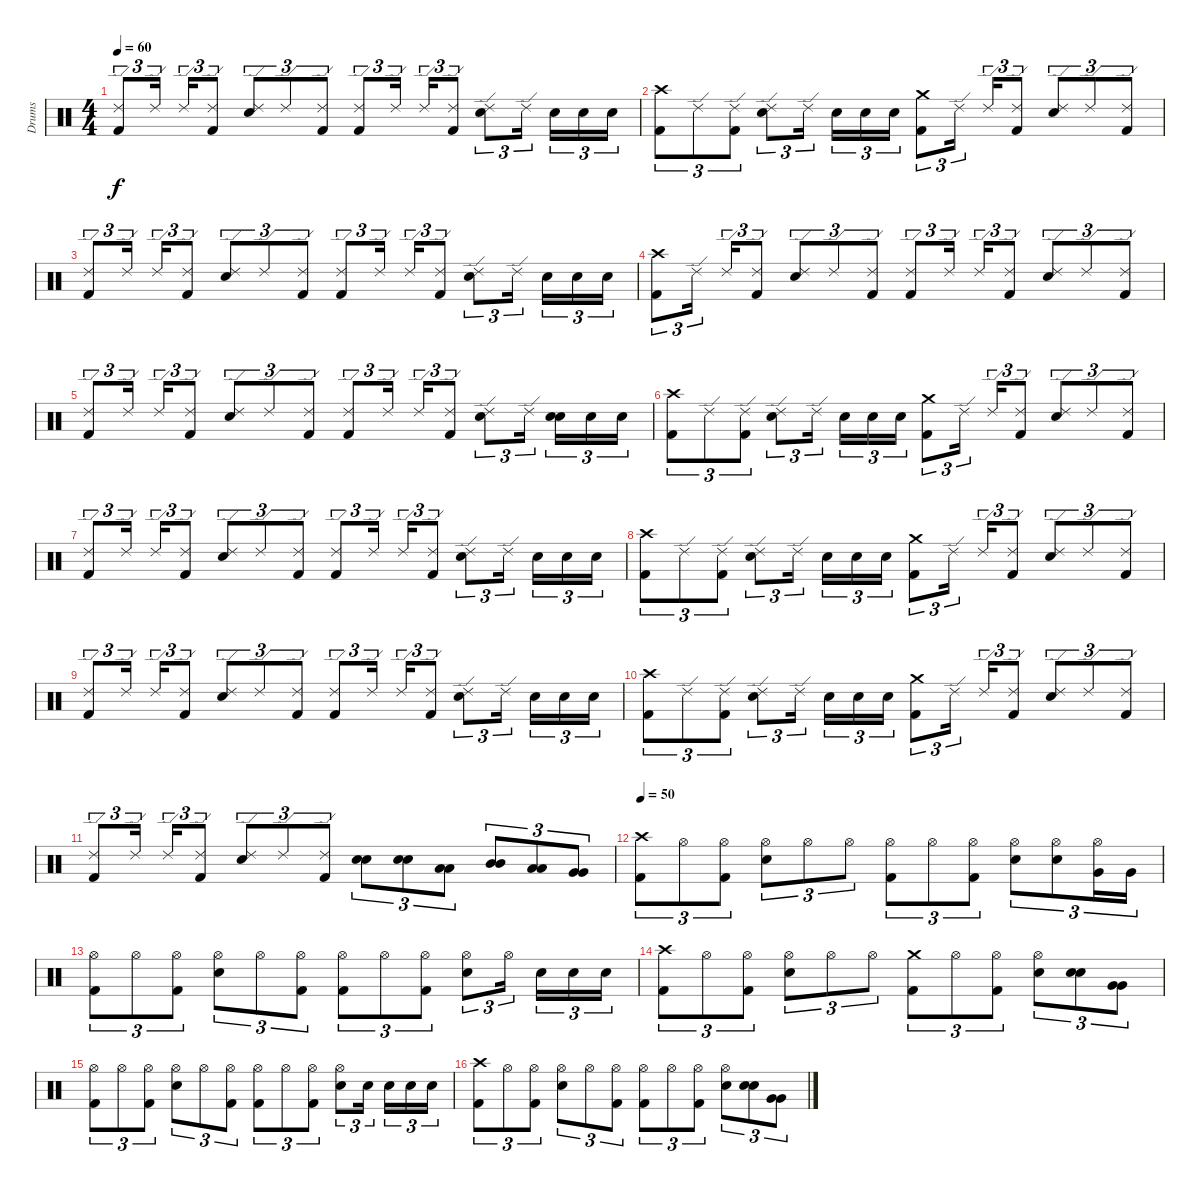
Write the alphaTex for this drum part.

\track ("Drums" "Drums") {instrument percussion}
\staff {score}
\articulation defaults
\ts (4 4)
\tempo 60
\clef neutral
\ks c
("Ride (edge) 2" "Kick (hit) 2").8{tu (3 2) dy f} "Ride (edge) 2".16{tu (3 2)} "Ride (edge) 2".16{tu (3 2)} ("Ride (edge) 2" "Kick (hit) 2").8{tu (3 2)} ("Ride (edge) 2" "Electric Snare (hit)").8{tu (3 2)} "Ride (edge) 2".8{tu (3 2)} ("Ride (edge) 2" "Kick (hit) 2").8{tu (3 2)} ("Ride (edge) 2" "Kick (hit) 2").8{tu (3 2)} "Ride (edge) 2".16{tu (3 2)} "Ride (edge) 2".16{tu (3 2)} ("Ride (edge) 2" "Kick (hit) 2").8{tu (3 2)} ("Ride (edge) 2" "Electric Snare (hit)").8{tu (3 2)} "Ride (edge) 2".16{tu (3 2)} "Electric Snare (hit)".16{tu (3 2)} "Electric Snare (hit)".16{tu (3 2)} "Electric Snare (hit)".16{tu (3 2)} |
("Crash high (hit)" "Kick (hit) 2").8{tu (3 2)} "Ride (edge) 2".8{tu (3 2)} ("Ride (edge) 2" "Kick (hit) 2").8{tu (3 2)} ("Ride (edge) 2" "Electric Snare (hit)").8{tu (3 2)} "Ride (edge) 2".16{tu (3 2)} "Electric Snare (hit)".16{tu (3 2)} "Electric Snare (hit)".16{tu (3 2)} "Electric Snare (hit)".16{tu (3 2)} ("Crash medium (hit)" "Kick (hit) 2").8{tu (3 2)} "Ride (edge) 2".16{tu (3 2)} "Ride (edge) 2".16{tu (3 2)} ("Ride (edge) 2" "Kick (hit) 2").8{tu (3 2)} ("Ride (edge) 2" "Electric Snare (hit)").8{tu (3 2)} "Ride (edge) 2".8{tu (3 2)} ("Ride (edge) 2" "Kick (hit) 2").8{tu (3 2)} |
("Ride (edge) 2" "Kick (hit) 2").8{tu (3 2)} "Ride (edge) 2".16{tu (3 2)} "Ride (edge) 2".16{tu (3 2)} ("Ride (edge) 2" "Kick (hit) 2").8{tu (3 2)} ("Ride (edge) 2" "Electric Snare (hit)").8{tu (3 2)} "Ride (edge) 2".8{tu (3 2)} ("Ride (edge) 2" "Kick (hit) 2").8{tu (3 2)} ("Ride (edge) 2" "Kick (hit) 2").8{tu (3 2)} "Ride (edge) 2".16{tu (3 2)} "Ride (edge) 2".16{tu (3 2)} ("Ride (edge) 2" "Kick (hit) 2").8{tu (3 2)} ("Ride (edge) 2" "Electric Snare (hit)").8{tu (3 2)} "Ride (edge) 2".16{tu (3 2)} "Electric Snare (hit)".16{tu (3 2)} "Electric Snare (hit)".16{tu (3 2)} "Electric Snare (hit)".16{tu (3 2)} |
("Crash high (hit)" "Kick (hit) 2").8{tu (3 2)} "Ride (edge) 2".16{tu (3 2)} "Ride (edge) 2".16{tu (3 2)} ("Ride (edge) 2" "Kick (hit) 2").8{tu (3 2)} ("Ride (edge) 2" "Electric Snare (hit)").8{tu (3 2)} "Ride (edge) 2".8{tu (3 2)} ("Ride (edge) 2" "Kick (hit) 2").8{tu (3 2)} ("Ride (edge) 2" "Kick (hit) 2").8{tu (3 2)} "Ride (edge) 2".16{tu (3 2)} "Ride (edge) 2".16{tu (3 2)} ("Ride (edge) 2" "Kick (hit) 2").8{tu (3 2)} ("Ride (edge) 2" "Electric Snare (hit)").8{tu (3 2)} "Ride (edge) 2".8{tu (3 2)} ("Ride (edge) 2" "Kick (hit) 2").8{tu (3 2)} |
("Ride (edge) 2" "Kick (hit) 2").8{tu (3 2)} "Ride (edge) 2".16{tu (3 2)} "Ride (edge) 2".16{tu (3 2)} ("Ride (edge) 2" "Kick (hit) 2").8{tu (3 2)} ("Ride (edge) 2" "Electric Snare (hit)").8{tu (3 2)} "Ride (edge) 2".8{tu (3 2)} ("Ride (edge) 2" "Kick (hit) 2").8{tu (3 2)} ("Ride (edge) 2" "Kick (hit) 2").8{tu (3 2)} "Ride (edge) 2".16{tu (3 2)} "Ride (edge) 2".16{tu (3 2)} ("Ride (edge) 2" "Kick (hit) 2").8{tu (3 2)} ("Ride (edge) 2" "Electric Snare (hit)").8{tu (3 2)} "Ride (edge) 2".16{tu (3 2)} ("Electric Snare (hit)" "Electric Snare (hit)").16{tu (3 2) bu 60} "Electric Snare (hit)".16{tu (3 2)} "Electric Snare (hit)".16{tu (3 2)} |
("Crash high (hit)" "Kick (hit) 2").8{tu (3 2)} "Ride (edge) 2".8{tu (3 2)} ("Ride (edge) 2" "Kick (hit) 2").8{tu (3 2)} ("Ride (edge) 2" "Electric Snare (hit)").8{tu (3 2)} "Ride (edge) 2".16{tu (3 2)} "Electric Snare (hit)".16{tu (3 2)} "Electric Snare (hit)".16{tu (3 2)} "Electric Snare (hit)".16{tu (3 2)} ("Crash medium (hit)" "Kick (hit) 2").8{tu (3 2)} "Ride (edge) 2".16{tu (3 2)} "Ride (edge) 2".16{tu (3 2)} ("Ride (edge) 2" "Kick (hit) 2").8{tu (3 2)} ("Ride (edge) 2" "Electric Snare (hit)").8{tu (3 2)} "Ride (edge) 2".8{tu (3 2)} ("Ride (edge) 2" "Kick (hit) 2").8{tu (3 2)} |
("Ride (edge) 2" "Kick (hit) 2").8{tu (3 2)} "Ride (edge) 2".16{tu (3 2)} "Ride (edge) 2".16{tu (3 2)} ("Ride (edge) 2" "Kick (hit) 2").8{tu (3 2)} ("Ride (edge) 2" "Electric Snare (hit)").8{tu (3 2)} "Ride (edge) 2".8{tu (3 2)} ("Ride (edge) 2" "Kick (hit) 2").8{tu (3 2)} ("Ride (edge) 2" "Kick (hit) 2").8{tu (3 2)} "Ride (edge) 2".16{tu (3 2)} "Ride (edge) 2".16{tu (3 2)} ("Ride (edge) 2" "Kick (hit) 2").8{tu (3 2)} ("Ride (edge) 2" "Electric Snare (hit)").8{tu (3 2)} "Ride (edge) 2".16{tu (3 2)} "Electric Snare (hit)".16{tu (3 2)} "Electric Snare (hit)".16{tu (3 2)} "Electric Snare (hit)".16{tu (3 2)} |
("Crash high (hit)" "Kick (hit) 2").8{tu (3 2)} "Ride (edge) 2".8{tu (3 2)} ("Ride (edge) 2" "Kick (hit) 2").8{tu (3 2)} ("Ride (edge) 2" "Electric Snare (hit)").8{tu (3 2)} "Ride (edge) 2".16{tu (3 2)} "Electric Snare (hit)".16{tu (3 2)} "Electric Snare (hit)".16{tu (3 2)} "Electric Snare (hit)".16{tu (3 2)} ("Crash medium (hit)" "Kick (hit) 2").8{tu (3 2)} "Ride (edge) 2".16{tu (3 2)} "Ride (edge) 2".16{tu (3 2)} ("Ride (edge) 2" "Kick (hit) 2").8{tu (3 2)} ("Ride (edge) 2" "Electric Snare (hit)").8{tu (3 2)} "Ride (edge) 2".8{tu (3 2)} ("Ride (edge) 2" "Kick (hit) 2").8{tu (3 2)} |
("Ride (edge) 2" "Kick (hit) 2").8{tu (3 2)} "Ride (edge) 2".16{tu (3 2)} "Ride (edge) 2".16{tu (3 2)} ("Ride (edge) 2" "Kick (hit) 2").8{tu (3 2)} ("Ride (edge) 2" "Electric Snare (hit)").8{tu (3 2)} "Ride (edge) 2".8{tu (3 2)} ("Ride (edge) 2" "Kick (hit) 2").8{tu (3 2)} ("Ride (edge) 2" "Kick (hit) 2").8{tu (3 2)} "Ride (edge) 2".16{tu (3 2)} "Ride (edge) 2".16{tu (3 2)} ("Ride (edge) 2" "Kick (hit) 2").8{tu (3 2)} ("Ride (edge) 2" "Electric Snare (hit)").8{tu (3 2)} "Ride (edge) 2".16{tu (3 2)} "Electric Snare (hit)".16{tu (3 2)} "Electric Snare (hit)".16{tu (3 2)} "Electric Snare (hit)".16{tu (3 2)} |
("Crash high (hit)" "Kick (hit) 2").8{tu (3 2)} "Ride (edge) 2".8{tu (3 2)} ("Ride (edge) 2" "Kick (hit) 2").8{tu (3 2)} ("Ride (edge) 2" "Electric Snare (hit)").8{tu (3 2)} "Ride (edge) 2".16{tu (3 2)} "Electric Snare (hit)".16{tu (3 2)} "Electric Snare (hit)".16{tu (3 2)} "Electric Snare (hit)".16{tu (3 2)} ("Crash medium (hit)" "Kick (hit) 2").8{tu (3 2)} "Ride (edge) 2".16{tu (3 2)} "Ride (edge) 2".16{tu (3 2)} ("Ride (edge) 2" "Kick (hit) 2").8{tu (3 2)} ("Ride (edge) 2" "Electric Snare (hit)").8{tu (3 2)} "Ride (edge) 2".8{tu (3 2)} ("Ride (edge) 2" "Kick (hit) 2").8{tu (3 2)} |
("Ride (edge) 2" "Kick (hit) 2").8{tu (3 2)} "Ride (edge) 2".16{tu (3 2)} "Ride (edge) 2".16{tu (3 2)} ("Ride (edge) 2" "Kick (hit) 2").8{tu (3 2)} ("Ride (edge) 2" "Electric Snare (hit)").8{tu (3 2)} "Ride (edge) 2".8{tu (3 2)} ("Ride (edge) 2" "Kick (hit) 2").8{tu (3 2)} ("Electric Snare (hit)" "Electric Snare (hit)").8{tu (3 2) bu 60} ("Electric Snare (hit)" "Electric Snare (hit)").8{tu (3 2) bu 60} ("Low Tom (hit)" "Low Tom (hit)").8{tu (3 2) bu 60} ("Mid Tom (hit)" "Mid Tom (hit)").8{tu (3 2) bu 60} ("Low Tom (hit)" "Low Tom (hit)").8{tu (3 2) bu 60} ("Very Low Tom (hit)" "Very Low Tom (hit)").8{tu (3 2) bu 60} |
\tempo 50
("Crash high (hit)" "Kick (hit) 2").8{tu (3 2)} "Hi-Hat (open)".8{tu (3 2)} ("Hi-Hat (open)" "Kick (hit) 2").8{tu (3 2)} ("Hi-Hat (open)" "Electric Snare (hit)").8{tu (3 2)} "Hi-Hat (open)".8{tu (3 2)} "Hi-Hat (open)".8{tu (3 2)} ("Hi-Hat (open)" "Kick (hit) 2").8{tu (3 2)} "Hi-Hat (open)".8{tu (3 2)} ("Hi-Hat (open)" "Kick (hit) 2").8{tu (3 2)} ("Hi-Hat (open)" "Electric Snare (hit)").8{tu (3 2)} ("Hi-Hat (open)" "Electric Snare (hit)").8{tu (3 2)} ("Hi-Hat (open)" "Very Low Tom (hit)").16{tu (3 2)} "Very Low Tom (hit)".16{tu (3 2)} |
("Hi-Hat (open)" "Kick (hit) 2").8{tu (3 2)} "Hi-Hat (open)".8{tu (3 2)} ("Hi-Hat (open)" "Kick (hit) 2").8{tu (3 2)} ("Hi-Hat (open)" "Electric Snare (hit)").8{tu (3 2)} "Hi-Hat (open)".8{tu (3 2)} ("Hi-Hat (open)" "Kick (hit) 2").8{tu (3 2)} ("Hi-Hat (open)" "Kick (hit) 2").8{tu (3 2)} "Hi-Hat (open)".8{tu (3 2)} ("Hi-Hat (open)" "Kick (hit) 2").8{tu (3 2)} ("Hi-Hat (open)" "Electric Snare (hit)").8{tu (3 2)} "Hi-Hat (open)".16{tu (3 2)} "Electric Snare (hit)".16{tu (3 2)} "Electric Snare (hit)".16{tu (3 2)} "Electric Snare (hit)".16{tu (3 2)} |
("Crash high (hit)" "Kick (hit) 2").8{tu (3 2)} "Hi-Hat (open)".8{tu (3 2)} ("Hi-Hat (open)" "Kick (hit) 2").8{tu (3 2)} ("Hi-Hat (open)" "Electric Snare (hit)").8{tu (3 2)} "Hi-Hat (open)".8{tu (3 2)} "Hi-Hat (open)".8{tu (3 2)} ("Crash medium (hit)" "Kick (hit) 2").8{tu (3 2)} "Hi-Hat (open)".8{tu (3 2)} ("Hi-Hat (open)" "Kick (hit) 2").8{tu (3 2)} ("Hi-Hat (open)" "Electric Snare (hit)").8{tu (3 2)} ("Electric Snare (hit)" "Electric Snare (hit)").8{tu (3 2) bu 60} ("Very Low Tom (hit)" "Very Low Tom (hit)").8{tu (3 2) bu 60} |
("Hi-Hat (open)" "Kick (hit) 2").8{tu (3 2)} "Hi-Hat (open)".8{tu (3 2)} ("Hi-Hat (open)" "Kick (hit) 2").8{tu (3 2)} ("Hi-Hat (open)" "Electric Snare (hit)").8{tu (3 2)} "Hi-Hat (open)".8{tu (3 2)} ("Hi-Hat (open)" "Kick (hit) 2").8{tu (3 2)} ("Hi-Hat (open)" "Kick (hit) 2").8{tu (3 2)} "Hi-Hat (open)".8{tu (3 2)} ("Hi-Hat (open)" "Kick (hit) 2").8{tu (3 2)} ("Hi-Hat (open)" "Electric Snare (hit)").8{tu (3 2)} "Electric Snare (hit)".16{tu (3 2)} "Electric Snare (hit)".16{tu (3 2)} "Electric Snare (hit)".16{tu (3 2)} "Electric Snare (hit)".16{tu (3 2)} |
("Crash high (hit)" "Kick (hit) 2").8{tu (3 2)} "Hi-Hat (open)".8{tu (3 2)} ("Hi-Hat (open)" "Kick (hit) 2").8{tu (3 2)} ("Hi-Hat (open)" "Electric Snare (hit)").8{tu (3 2)} "Hi-Hat (open)".8{tu (3 2)} ("Hi-Hat (open)" "Kick (hit) 2").8{tu (3 2)} ("Hi-Hat (open)" "Kick (hit) 2").8{tu (3 2)} "Hi-Hat (open)".8{tu (3 2)} ("Hi-Hat (open)" "Kick (hit) 2").8{tu (3 2)} ("Hi-Hat (open)" "Electric Snare (hit)").8{tu (3 2)} ("Electric Snare (hit)" "Electric Snare (hit)").8{tu (3 2) bu 60} ("Very Low Tom (hit)" "Very Low Tom (hit)").8{tu (3 2) bu 60}
